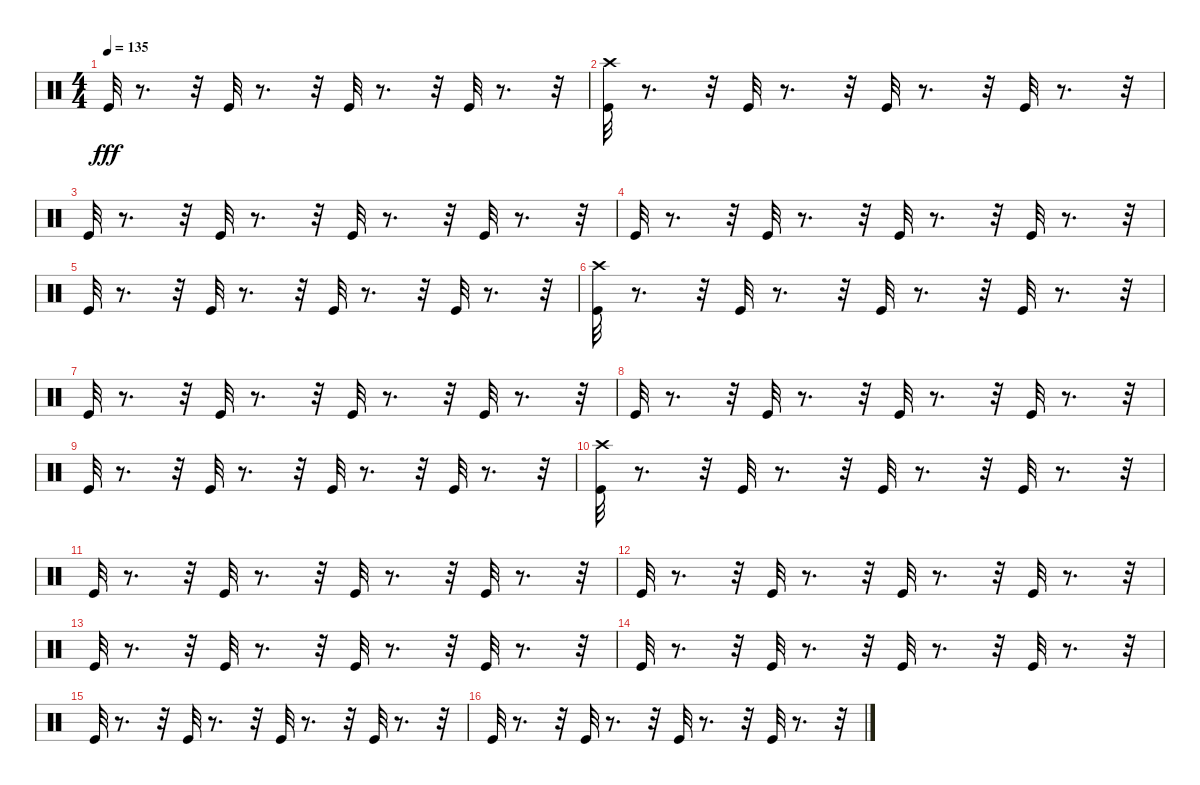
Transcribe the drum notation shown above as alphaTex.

\track "" {instrument percussion}
\staff {score}
\articulation defaults
\ts (4 4)
\tempo 135
\clef neutral
\ks c "Kick (hit)".32{dy fff}
r.8{d} r.32 "Kick (hit)".32 r.8{d} r.32 "Kick (hit)".32 r.8{d} r.32 "Kick (hit)".32 r.8{d} r.32 |
("Kick (hit)" "Crash high (hit)").32 r.8{d} r.32 "Kick (hit)".32 r.8{d} r.32 "Kick (hit)".32 r.8{d} r.32 "Kick (hit)".32 r.8{d} r.32 |
"Kick (hit)".32 r.8{d} r.32 "Kick (hit)".32 r.8{d} r.32 "Kick (hit)".32 r.8{d} r.32 "Kick (hit)".32 r.8{d} r.32 |
"Kick (hit)".32 r.8{d} r.32 "Kick (hit)".32 r.8{d} r.32 "Kick (hit)".32 r.8{d} r.32 "Kick (hit)".32 r.8{d} r.32 |
"Kick (hit)".32 r.8{d} r.32 "Kick (hit)".32 r.8{d} r.32 "Kick (hit)".32 r.8{d} r.32 "Kick (hit)".32 r.8{d} r.32 |
("Kick (hit)" "Crash high (hit)").32 r.8{d} r.32 "Kick (hit)".32 r.8{d} r.32 "Kick (hit)".32 r.8{d} r.32 "Kick (hit)".32 r.8{d} r.32 |
"Kick (hit)".32 r.8{d} r.32 "Kick (hit)".32 r.8{d} r.32 "Kick (hit)".32 r.8{d} r.32 "Kick (hit)".32 r.8{d} r.32 |
"Kick (hit)".32 r.8{d} r.32 "Kick (hit)".32 r.8{d} r.32 "Kick (hit)".32 r.8{d} r.32 "Kick (hit)".32 r.8{d} r.32 |
"Kick (hit)".32 r.8{d} r.32 "Kick (hit)".32 r.8{d} r.32 "Kick (hit)".32 r.8{d} r.32 "Kick (hit)".32 r.8{d} r.32 |
("Kick (hit)" "Crash high (hit)").32 r.8{d} r.32 "Kick (hit)".32 r.8{d} r.32 "Kick (hit)".32 r.8{d} r.32 "Kick (hit)".32 r.8{d} r.32 |
"Kick (hit)".32 r.8{d} r.32 "Kick (hit)".32 r.8{d} r.32 "Kick (hit)".32 r.8{d} r.32 "Kick (hit)".32 r.8{d} r.32 |
"Kick (hit)".32 r.8{d} r.32 "Kick (hit)".32 r.8{d} r.32 "Kick (hit)".32 r.8{d} r.32 "Kick (hit)".32 r.8{d} r.32 |
"Kick (hit)".32 r.8{d} r.32 "Kick (hit)".32 r.8{d} r.32 "Kick (hit)".32 r.8{d} r.32 "Kick (hit)".32 r.8{d} r.32 |
"Kick (hit)".32 r.8{d} r.32 "Kick (hit)".32 r.8{d} r.32 "Kick (hit)".32 r.8{d} r.32 "Kick (hit)".32 r.8{d} r.32 |
"Kick (hit)".32 r.8{d} r.32 "Kick (hit)".32 r.8{d} r.32 "Kick (hit)".32 r.8{d} r.32 "Kick (hit)".32 r.8{d} r.32 |
"Kick (hit)".32 r.8{d} r.32 "Kick (hit)".32 r.8{d} r.32 "Kick (hit)".32 r.8{d} r.32 "Kick (hit)".32 r.8{d} r.32
